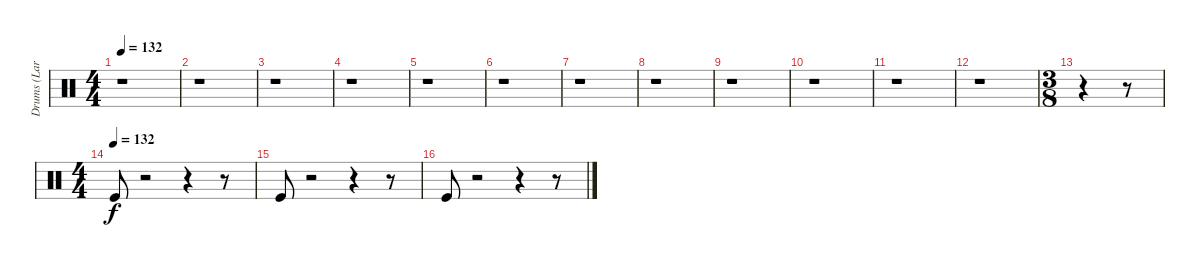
\track ("Drums (Lars)" "Drums (Lar") {instrument percussion}
\staff {score}
\articulation defaults
\ts (4 4)
\tempo 132
\tempo 108
\tempo 132
\clef neutral
\ks c
r.1{dy f} |
r.1 |
r.1 |
r.1 |
r.1 |
r.1 |
r.1 |
r.1 |
r.1 |
r.1 |
r.1 |
r.1 |
\ts (3 8)
r.4 r.8 |
\ts (4 4)
\tempo (132)
"Kick (hit)".8 r.2 r.4 r.8 |
"Kick (hit)".8 r.2 r.4 r.8 |
"Kick (hit)".8 r.2 r.4 r.8
